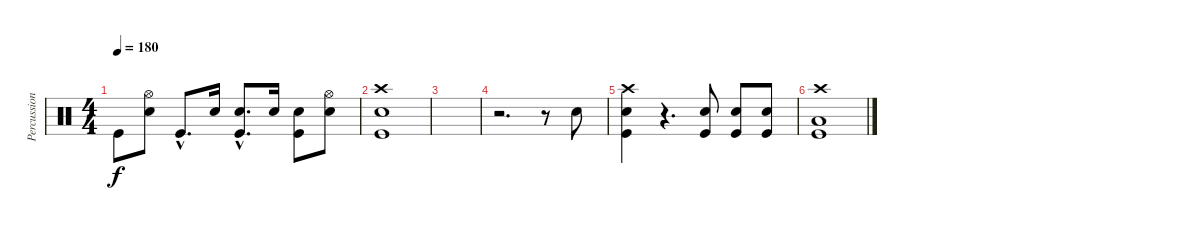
\track ("Percussion" "Percussion") {instrument percussion}
\staff {score}
\articulation defaults
\ts (4 4)
\tempo 180
\clef neutral
\ks c "Kick (hit)".8{dy f}
("Hi-Hat (open)" "Electric Snare (hit)").8 "Kick (hit)"{hac}.8{d} "Electric Snare (hit)".16 ("Electric Snare (hit)"{hac} "Kick (hit)"{hac}).8{d} "Electric Snare (hit)".16 ("Electric Snare (hit)" "Kick (hit)").8 ("Hi-Hat (open)" "Electric Snare (hit)").8 |
("Crash high (hit)" "Electric Snare (hit)" "Kick (hit)").1 |
|
r.2{d} r.8 "Snare (hit) 2".8 |
("Crash high (hit)" "Electric Snare (hit)" "Kick (hit)").4 r.4{d} ("Electric Snare (hit)" "Kick (hit)").8 ("Electric Snare (hit)" "Kick (hit)").8 ("Electric Snare (hit)" "Kick (hit)").8 |
("Crash high (hit)" "Low Floor Tom (hit)" "Kick (hit)").1
